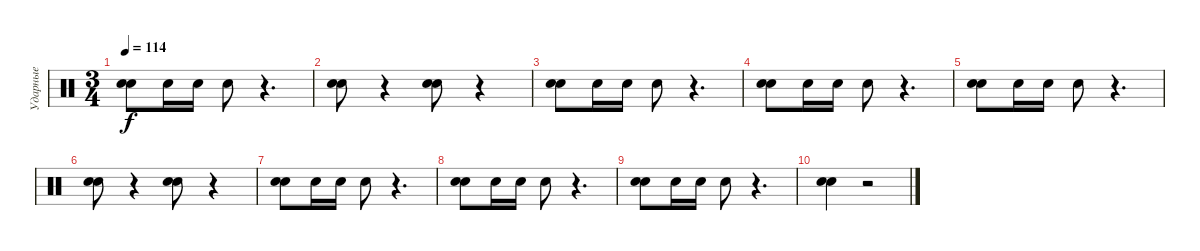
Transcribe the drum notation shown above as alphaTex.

\track ("Ударные" "Ударные") {instrument percussion}
\staff {score}
\articulation defaults
\ts (3 4)
\tempo 114
\clef neutral
\ks c
("Snare (hit) 2" "Electric Snare (hit)").8{dy f} "Electric Snare (hit)".16 "Electric Snare (hit)".16 "Electric Snare (hit)".8 r.4{d} |
("Snare (hit) 2" "Electric Snare (hit)").8 r.4 ("Snare (hit) 2" "Electric Snare (hit)").8 r.4 |
("Snare (hit) 2" "Electric Snare (hit)").8 "Electric Snare (hit)".16 "Electric Snare (hit)".16 "Electric Snare (hit)".8 r.4{d} |
("Snare (hit) 2" "Electric Snare (hit)").8 "Electric Snare (hit)".16 "Electric Snare (hit)".16 "Electric Snare (hit)".8 r.4{d} |
("Snare (hit) 2" "Electric Snare (hit)").8 "Electric Snare (hit)".16 "Electric Snare (hit)".16 "Electric Snare (hit)".8 r.4{d} |
("Snare (hit) 2" "Electric Snare (hit)").8 r.4 ("Snare (hit) 2" "Electric Snare (hit)").8 r.4 |
("Snare (hit) 2" "Electric Snare (hit)").8 "Electric Snare (hit)".16 "Electric Snare (hit)".16 "Electric Snare (hit)".8 r.4{d} |
("Snare (hit) 2" "Electric Snare (hit)").8 "Electric Snare (hit)".16 "Electric Snare (hit)".16 "Electric Snare (hit)".8 r.4{d} |
("Snare (hit) 2" "Electric Snare (hit)").8 "Electric Snare (hit)".16 "Electric Snare (hit)".16 "Electric Snare (hit)".8 r.4{d} |
("Snare (hit) 2" "Electric Snare (hit)").4 r.2
